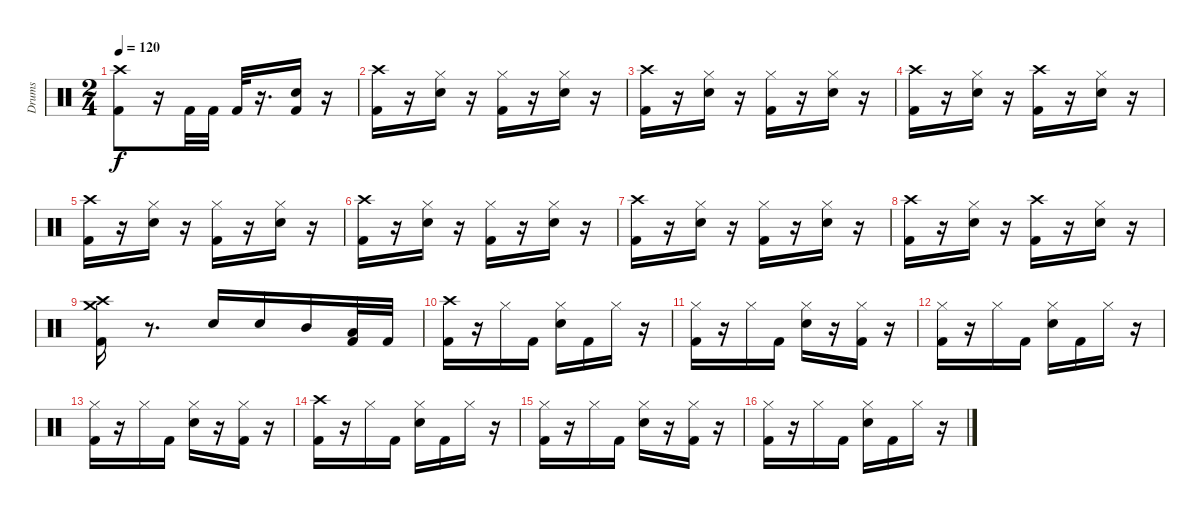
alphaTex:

\track ("Drums" "Drums") {instrument percussion}
\staff {score}
\articulation defaults
\ts (2 4)
\tempo 120
\clef neutral
\ks c
("Crash high (hit)" "Kick (hit) 2").8{dy f} r.16 "Kick (hit) 2".32 "Kick (hit) 2".32 "Kick (hit) 2".32 r.16{d} ("Snare (hit) 2" "Kick (hit) 2").16 r.16 |
("Crash high (hit)" "Kick (hit) 2").16 r.16 ("Hi-Hat (closed)" "Snare (hit) 2").16 r.16 ("Hi-Hat (closed)" "Kick (hit) 2").16 r.16 ("Hi-Hat (closed)" "Snare (hit) 2").16 r.16 |
("Crash high (hit)" "Kick (hit) 2").16 r.16 ("Hi-Hat (closed)" "Snare (hit) 2").16 r.16 ("Hi-Hat (closed)" "Kick (hit) 2").16 r.16 ("Hi-Hat (closed)" "Snare (hit) 2").16 r.16 |
("Crash high (hit)" "Kick (hit) 2").16 r.16 ("Hi-Hat (closed)" "Snare (hit) 2").16 r.16 ("Crash high (hit)" "Kick (hit) 2").16 r.16 ("Hi-Hat (closed)" "Snare (hit) 2").16 r.16 |
("Crash high (hit)" "Kick (hit) 2").16 r.16 ("Hi-Hat (closed)" "Snare (hit) 2").16 r.16 ("Hi-Hat (closed)" "Kick (hit) 2").16 r.16 ("Hi-Hat (closed)" "Snare (hit) 2").16 r.16 |
("Crash high (hit)" "Kick (hit) 2").16 r.16 ("Hi-Hat (closed)" "Snare (hit) 2").16 r.16 ("Hi-Hat (closed)" "Kick (hit) 2").16 r.16 ("Hi-Hat (closed)" "Snare (hit) 2").16 r.16 |
("Crash high (hit)" "Kick (hit) 2").16 r.16 ("Hi-Hat (closed)" "Snare (hit) 2").16 r.16 ("Hi-Hat (closed)" "Kick (hit) 2").16 r.16 ("Hi-Hat (closed)" "Snare (hit) 2").16 r.16 |
("Crash high (hit)" "Kick (hit) 2").16 r.16 ("Hi-Hat (closed)" "Snare (hit) 2").16 r.16 ("Crash high (hit)" "Kick (hit) 2").16 r.16 ("Hi-Hat (closed)" "Snare (hit) 2").16 r.16 |
("Crash medium (hit)" "Crash high (hit)" "Kick (hit) 2").16 r.8{d} "Snare (hit) 2".16 "Snare (hit) 2".16 "Mid Tom (hit)".16 ("Low Tom (hit)" "Kick (hit) 2").32 "Kick (hit) 2".32 |
("Crash high (hit)" "Kick (hit) 2").16 r.16 "Hi-Hat (closed)".16 "Kick (hit) 2".16 ("Snare (hit) 2" "Hi-Hat (closed)").16 "Kick (hit) 2".16 "Hi-Hat (closed)".16 r.16 |
("Hi-Hat (closed)" "Kick (hit) 2").16 r.16 "Hi-Hat (closed)".16 "Kick (hit) 2".16 ("Hi-Hat (closed)" "Snare (hit) 2").16 r.16 ("Kick (hit) 2" "Hi-Hat (closed)").16 r.16 |
("Hi-Hat (closed)" "Kick (hit) 2").16 r.16 "Hi-Hat (closed)".16 "Kick (hit) 2".16 ("Hi-Hat (closed)" "Snare (hit) 2").16 "Kick (hit) 2".16 "Hi-Hat (closed)".16 r.16 |
("Hi-Hat (closed)" "Kick (hit) 2").16 r.16 "Hi-Hat (closed)".16 "Kick (hit) 2".16 ("Hi-Hat (closed)" "Snare (hit) 2").16 r.16 ("Kick (hit) 2" "Hi-Hat (closed)").16 r.16 |
("Crash high (hit)" "Kick (hit) 2").16 r.16 "Hi-Hat (closed)".16 "Kick (hit) 2".16 ("Snare (hit) 2" "Hi-Hat (closed)").16 "Kick (hit) 2".16 "Hi-Hat (closed)".16 r.16 |
("Hi-Hat (closed)" "Kick (hit) 2").16 r.16 "Hi-Hat (closed)".16 "Kick (hit) 2".16 ("Hi-Hat (closed)" "Snare (hit) 2").16 r.16 ("Kick (hit) 2" "Hi-Hat (closed)").16 r.16 |
("Hi-Hat (closed)" "Kick (hit) 2").16 r.16 "Hi-Hat (closed)".16 "Kick (hit) 2".16 ("Hi-Hat (closed)" "Snare (hit) 2").16 "Kick (hit) 2".16 "Hi-Hat (closed)".16 r.16
